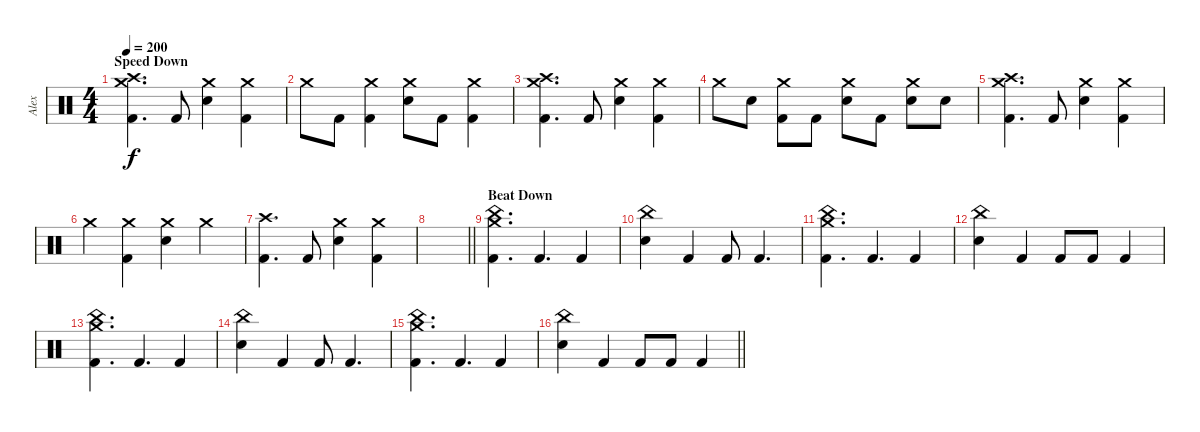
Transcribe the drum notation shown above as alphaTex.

\track ("Alex" "Alex") {instrument percussion}
\staff {score}
\articulation defaults
\ts (4 4)
\section ("" "Speed Down")
\tempo 200
\clef neutral
\ks c
("Crash medium (hit)" "Crash high (hit)" "Kick (hit) 2").4{d dy f} "Kick (hit) 2".8 ("Crash medium (hit)" "Electric Snare (hit)").4 ("Crash medium (hit)" "Kick (hit) 2").4 |
"Crash medium (hit)".8 "Kick (hit) 2".8 ("Crash medium (hit)" "Kick (hit) 2").4 ("Crash medium (hit)" "Electric Snare (hit)").8 "Kick (hit) 2".8 ("Crash medium (hit)" "Kick (hit) 2").4 |
("Crash medium (hit)" "Crash high (hit)" "Kick (hit) 2").4{d} "Kick (hit) 2".8 ("Crash medium (hit)" "Electric Snare (hit)").4 ("Crash medium (hit)" "Kick (hit) 2").4 |
"Crash medium (hit)".8 "Electric Snare (hit)".8 ("Crash medium (hit)" "Kick (hit) 2").8 "Kick (hit) 2".8 ("Crash medium (hit)" "Electric Snare (hit)").8 "Kick (hit) 2".8 ("Crash medium (hit)" "Electric Snare (hit)").8 "Electric Snare (hit)".8 |
("Crash medium (hit)" "Crash high (hit)" "Kick (hit) 2").4{d} "Kick (hit) 2".8 ("Crash medium (hit)" "Electric Snare (hit)").4 ("Crash medium (hit)" "Kick (hit) 2").4 |
"Crash medium (hit)".4 ("Crash medium (hit)" "Kick (hit) 2").4 ("Crash medium (hit)" "Electric Snare (hit)").4 "Crash medium (hit)".4 |
("Crash high (hit)" "Kick (hit) 2").4{d} "Kick (hit) 2".8 ("Crash medium (hit)" "Electric Snare (hit)").4 ("Crash medium (hit)" "Kick (hit) 2").4 |
\barLineRight lightlight
|
\section ("" "Beat Down")
("Crash medium (hit)" "China (hit)" "Kick (hit) 2").4{d} "Kick (hit) 2".4{d} "Kick (hit) 2".4 |
("China (hit)" "Electric Snare (hit)").4 "Kick (hit) 2".4 "Kick (hit) 2".8 "Kick (hit) 2".4{d} |
("Crash medium (hit)" "China (hit)" "Kick (hit) 2").4{d} "Kick (hit) 2".4{d} "Kick (hit) 2".4 |
("China (hit)" "Electric Snare (hit)").4 "Kick (hit) 2".4 "Kick (hit) 2".8 "Kick (hit) 2".8 "Kick (hit) 2".4 |
("Crash medium (hit)" "China (hit)" "Kick (hit) 2").4{d} "Kick (hit) 2".4{d} "Kick (hit) 2".4 |
("China (hit)" "Electric Snare (hit)").4 "Kick (hit) 2".4 "Kick (hit) 2".8 "Kick (hit) 2".4{d} |
("Crash medium (hit)" "China (hit)" "Kick (hit) 2").4{d} "Kick (hit) 2".4{d} "Kick (hit) 2".4 |
\barLineRight lightlight
("China (hit)" "Electric Snare (hit)").4 "Kick (hit) 2".4 "Kick (hit) 2".8 "Kick (hit) 2".8 "Kick (hit) 2".4
